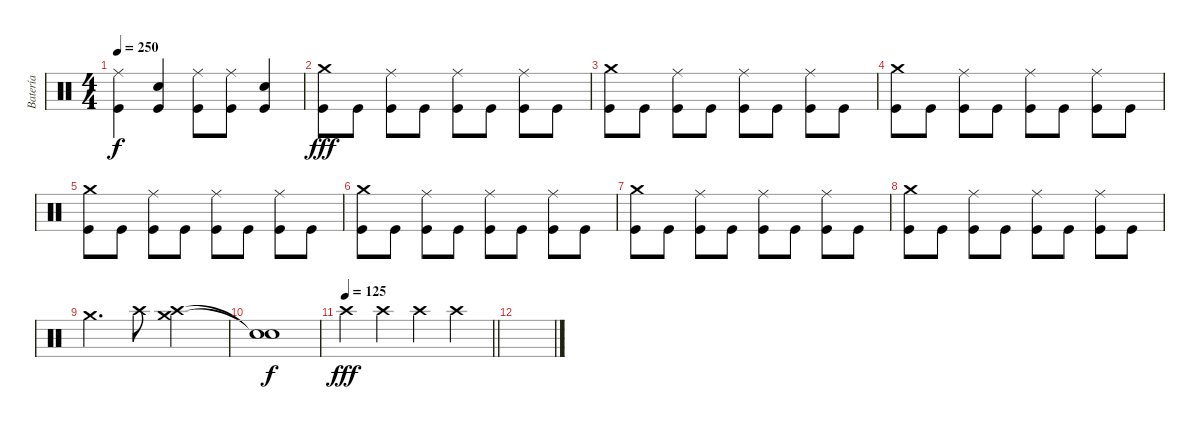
\track ("Batería" "Batería") {instrument percussion}
\staff {score}
\articulation defaults
\ts (4 4)
\tempo 250
\clef neutral
\ks c
("Ride (middle)" "Kick (hit)").4{dy f} ("Electric Snare (hit)" "Kick (hit)").4 ("Ride (middle)" "Kick (hit)").8 ("Ride (middle)" "Kick (hit)").8 ("Electric Snare (hit)" "Kick (hit)").4 |
("Crash medium (hit)" "Kick (hit)").8{dy fff} "Kick (hit)".8 ("Ride (middle)" "Kick (hit)").8 "Kick (hit)".8 ("Ride (middle)" "Kick (hit)").8 "Kick (hit)".8 ("Ride (middle)" "Kick (hit)").8 "Kick (hit)".8 |
("Crash medium (hit)" "Kick (hit)").8 "Kick (hit)".8 ("Ride (middle)" "Kick (hit)").8 "Kick (hit)".8 ("Ride (middle)" "Kick (hit)").8 "Kick (hit)".8 ("Ride (middle)" "Kick (hit)").8 "Kick (hit)".8 |
("Crash medium (hit)" "Kick (hit)").8 "Kick (hit)".8 ("Ride (middle)" "Kick (hit)").8 "Kick (hit)".8 ("Ride (middle)" "Kick (hit)").8 "Kick (hit)".8 ("Ride (middle)" "Kick (hit)").8 "Kick (hit)".8 |
("Crash medium (hit)" "Kick (hit)").8 "Kick (hit)".8 ("Ride (middle)" "Kick (hit)").8 "Kick (hit)".8 ("Ride (middle)" "Kick (hit)").8 "Kick (hit)".8 ("Ride (middle)" "Kick (hit)").8 "Kick (hit)".8 |
("Crash medium (hit)" "Kick (hit)").8 "Kick (hit)".8 ("Ride (middle)" "Kick (hit)").8 "Kick (hit)".8 ("Ride (middle)" "Kick (hit)").8 "Kick (hit)".8 ("Ride (middle)" "Kick (hit)").8 "Kick (hit)".8 |
("Crash medium (hit)" "Kick (hit)").8 "Kick (hit)".8 ("Ride (middle)" "Kick (hit)").8 "Kick (hit)".8 ("Ride (middle)" "Kick (hit)").8 "Kick (hit)".8 ("Ride (middle)" "Kick (hit)").8 "Kick (hit)".8 |
("Crash medium (hit)" "Kick (hit)").8 "Kick (hit)".8 ("Ride (middle)" "Kick (hit)").8 "Kick (hit)".8 ("Ride (middle)" "Kick (hit)").8 "Kick (hit)".8 ("Ride (middle)" "Kick (hit)").8 "Kick (hit)".8 |
"Crash medium (hit)".4{d} "Crash high (hit)".8 ("Crash medium (hit)" "Crash high (hit)").2 |
("Snare (hit)"{t} "Snare (hit)"{t}).1{dy f} |
\tempo 125
\barLineRight lightlight "Crash high (hit)".4{dy fff} "Crash high (hit)".4 "Crash high (hit)".4 "Crash high (hit)".4
|
\section ("" "")
